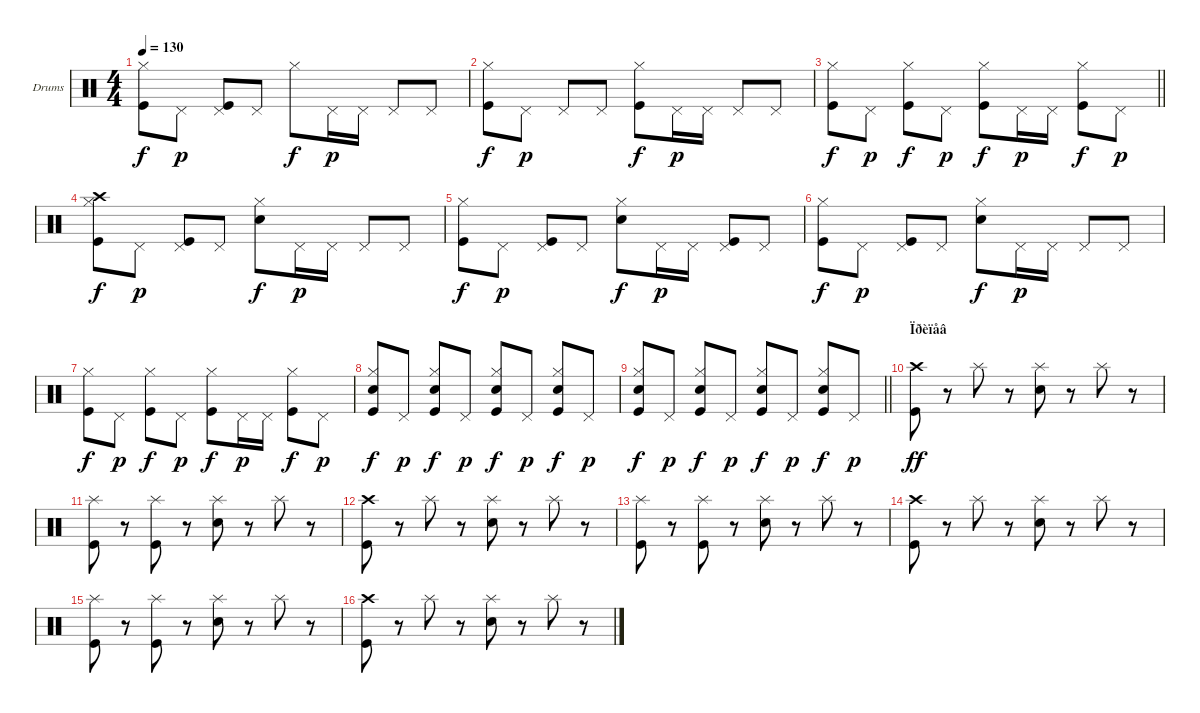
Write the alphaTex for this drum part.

\bracketExtendMode groupsimilarinstruments
\firstSystemTrackNameOrientation horizontal
\otherSystemsTrackNameOrientation horizontal
\track ("Drumkit" "Drums") {instrument percussion}
\staff {score}
\articulation defaults
\ts (4 4)
\tempo 130
\clef neutral
\ks c
("Kick (hit)" "Hi-Hat (closed)").8{dy f} "Pedal Hi-Hat (hit)".8{dy p} ("Pedal Hi-Hat (hit)" "Kick (hit)").8 "Pedal Hi-Hat (hit)".8 "Hi-Hat (closed)".8{dy f} "Pedal Hi-Hat (hit)".16{dy p} "Pedal Hi-Hat (hit)".16 "Pedal Hi-Hat (hit)".8 "Pedal Hi-Hat (hit)".8 |
("Hi-Hat (closed)" "Kick (hit)").8{dy f} "Pedal Hi-Hat (hit)".8{dy p} "Pedal Hi-Hat (hit)".8 "Pedal Hi-Hat (hit)".8 ("Kick (hit)" "Hi-Hat (closed)").8{dy f} "Pedal Hi-Hat (hit)".16{dy p} "Pedal Hi-Hat (hit)".16 "Pedal Hi-Hat (hit)".8 "Pedal Hi-Hat (hit)".8 |
\barLineRight lightlight
("Kick (hit)" "Hi-Hat (closed)").8{dy f} "Pedal Hi-Hat (hit)".8{dy p} ("Kick (hit)" "Hi-Hat (closed)").8{dy f} "Pedal Hi-Hat (hit)".8{dy p} ("Kick (hit)" "Hi-Hat (closed)").8{dy f} "Pedal Hi-Hat (hit)".16{dy p} "Pedal Hi-Hat (hit)".16 ("Kick (hit)" "Hi-Hat (closed)").8{dy f} "Pedal Hi-Hat (hit)".8{dy p} |
\section ("" "")
("Hi-Hat (closed)" "Kick (hit)" "Crash high (hit)").8{dy f} "Pedal Hi-Hat (hit)".8{dy p} ("Pedal Hi-Hat (hit)" "Kick (hit)").8 "Pedal Hi-Hat (hit)".8 ("Snare (hit) 2" "Hi-Hat (closed)").8{dy f} "Pedal Hi-Hat (hit)".16{dy p} "Pedal Hi-Hat (hit)".16 "Pedal Hi-Hat (hit)".8 "Pedal Hi-Hat (hit)".8 |
("Kick (hit)" "Hi-Hat (closed)").8{dy f} "Pedal Hi-Hat (hit)".8{dy p} ("Pedal Hi-Hat (hit)" "Kick (hit)").8 "Pedal Hi-Hat (hit)".8 ("Snare (hit) 2" "Hi-Hat (closed)").8{dy f} "Pedal Hi-Hat (hit)".16{dy p} "Pedal Hi-Hat (hit)".16 ("Pedal Hi-Hat (hit)" "Kick (hit)").8 "Pedal Hi-Hat (hit)".8 |
("Hi-Hat (closed)" "Kick (hit)").8{dy f} "Pedal Hi-Hat (hit)".8{dy p} ("Pedal Hi-Hat (hit)" "Kick (hit)").8 "Pedal Hi-Hat (hit)".8 ("Snare (hit) 2" "Hi-Hat (closed)").8{dy f} "Pedal Hi-Hat (hit)".16{dy p} "Pedal Hi-Hat (hit)".16 "Pedal Hi-Hat (hit)".8 "Pedal Hi-Hat (hit)".8 |
("Hi-Hat (closed)" "Kick (hit)").8{dy f} "Pedal Hi-Hat (hit)".8{dy p} ("Hi-Hat (closed)" "Kick (hit)").8{dy f} "Pedal Hi-Hat (hit)".8{dy p} ("Hi-Hat (closed)" "Kick (hit)").8{dy f} "Pedal Hi-Hat (hit)".16{dy p} "Pedal Hi-Hat (hit)".16 ("Hi-Hat (closed)" "Kick (hit)").8{dy f} "Pedal Hi-Hat (hit)".8{dy p} |
("Snare (hit) 2" "Hi-Hat (closed)" "Kick (hit)").8{dy f} "Pedal Hi-Hat (hit)".8{dy p} ("Snare (hit) 2" "Hi-Hat (closed)" "Kick (hit)").8{dy f} "Pedal Hi-Hat (hit)".8{dy p} ("Snare (hit) 2" "Hi-Hat (closed)" "Kick (hit)").8{dy f} "Pedal Hi-Hat (hit)".8{dy p} ("Snare (hit) 2" "Hi-Hat (closed)" "Kick (hit)").8{dy f} "Pedal Hi-Hat (hit)".8{dy p} |
\barLineRight lightlight
("Snare (hit) 2" "Hi-Hat (closed)" "Kick (hit)").8{dy f} "Pedal Hi-Hat (hit)".8{dy p} ("Snare (hit) 2" "Hi-Hat (closed)" "Kick (hit)").8{dy f} "Pedal Hi-Hat (hit)".8{dy p} ("Snare (hit) 2" "Hi-Hat (closed)" "Kick (hit)").8{dy f} "Pedal Hi-Hat (hit)".8{dy p} ("Snare (hit) 2" "Hi-Hat (closed)" "Kick (hit)").8{dy f} "Pedal Hi-Hat (hit)".8{dy p} |
\section ("" "Ïðèïåâ")
("Kick (hit)" "Crash high (hit)").8{dy ff} r.8 "Splash (hit)".8 r.8 ("Snare (hit) 2" "Splash (hit)").8 r.8 "Splash (hit)".8 r.8 |
("Kick (hit)" "Splash (hit)").8 r.8 ("Kick (hit)" "Splash (hit)").8 r.8 ("Snare (hit) 2" "Splash (hit)").8 r.8 "Splash (hit)".8 r.8 |
("Kick (hit)" "Crash high (hit)").8 r.8 "Splash (hit)".8 r.8 ("Snare (hit) 2" "Splash (hit)").8 r.8 "Splash (hit)".8 r.8 |
("Kick (hit)" "Splash (hit)").8 r.8 ("Kick (hit)" "Splash (hit)").8 r.8 ("Snare (hit) 2" "Splash (hit)").8 r.8 "Splash (hit)".8 r.8 |
("Kick (hit)" "Crash high (hit)").8 r.8 "Splash (hit)".8 r.8 ("Snare (hit) 2" "Splash (hit)").8 r.8 "Splash (hit)".8 r.8 |
("Kick (hit)" "Splash (hit)").8 r.8 ("Kick (hit)" "Splash (hit)").8 r.8 ("Snare (hit) 2" "Splash (hit)").8 r.8 "Splash (hit)".8 r.8 |
("Kick (hit)" "Crash high (hit)").8 r.8 "Splash (hit)".8 r.8 ("Snare (hit) 2" "Splash (hit)").8 r.8 "Splash (hit)".8 r.8
